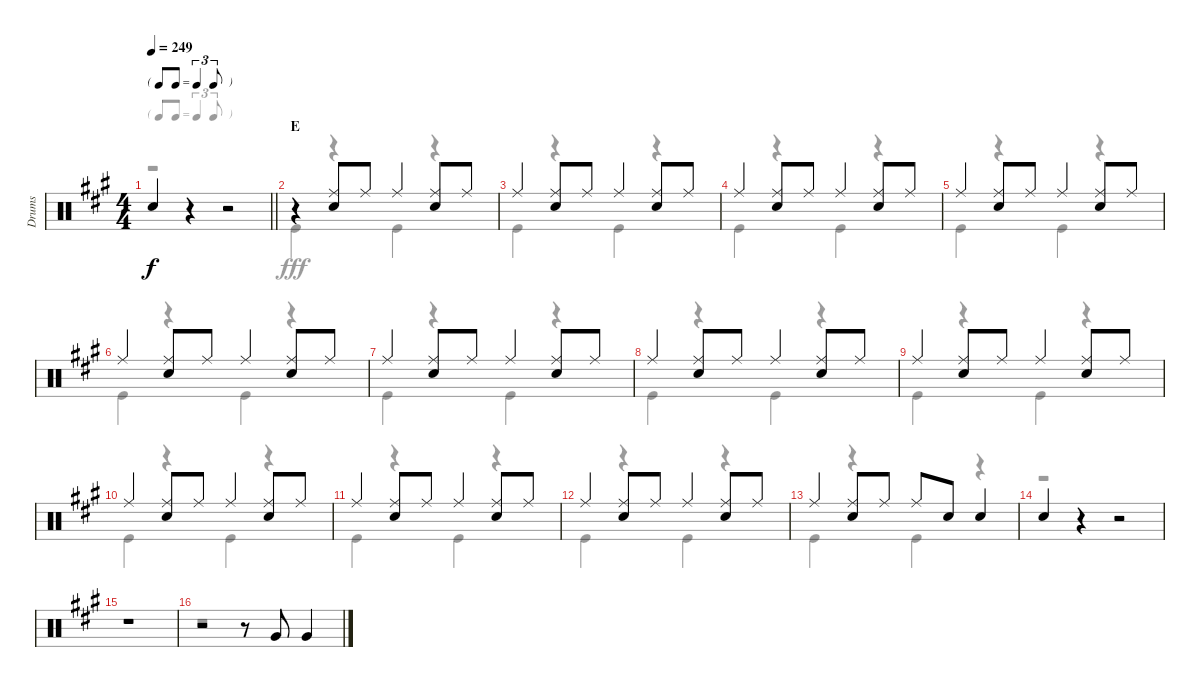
\track ("Drums" "Drums") {instrument percussion}
\staff {score}
\articulation defaults
\voice
\ts (4 4)
\tf triplet8th
\tempo 249
\clef neutral
\barLineRight lightlight
\ks a "Snare (hit) 2".4{dy f}
r.4 r.2 |
\section ("" "E")
r.4 ("Ride (middle)" "Snare (hit) 2").8 "Ride (middle)".8 "Ride (middle)".4 ("Ride (middle)" "Snare (hit) 2").8 "Ride (middle)".8 |
"Ride (middle)".4 ("Ride (middle)" "Snare (hit) 2").8 "Ride (middle)".8 "Ride (middle)".4 ("Ride (middle)" "Snare (hit) 2").8 "Ride (middle)".8 |
"Ride (middle)".4 ("Ride (middle)" "Snare (hit) 2").8 "Ride (middle)".8 "Ride (middle)".4 ("Ride (middle)" "Snare (hit) 2").8 "Ride (middle)".8 |
"Ride (middle)".4 ("Ride (middle)" "Snare (hit) 2").8 "Ride (middle)".8 "Ride (middle)".4 ("Ride (middle)" "Snare (hit) 2").8 "Ride (middle)".8 |
"Ride (middle)".4 ("Ride (middle)" "Snare (hit) 2").8 "Ride (middle)".8 "Ride (middle)".4 ("Ride (middle)" "Snare (hit) 2").8 "Ride (middle)".8 |
"Ride (middle)".4 ("Ride (middle)" "Snare (hit) 2").8 "Ride (middle)".8 "Ride (middle)".4 ("Ride (middle)" "Snare (hit) 2").8 "Ride (middle)".8 |
"Ride (middle)".4 ("Ride (middle)" "Snare (hit) 2").8 "Ride (middle)".8 "Ride (middle)".4 ("Ride (middle)" "Snare (hit) 2").8 "Ride (middle)".8 |
"Ride (middle)".4 ("Ride (middle)" "Snare (hit) 2").8 "Ride (middle)".8 "Ride (middle)".4 ("Ride (middle)" "Snare (hit) 2").8 "Ride (middle)".8 |
"Ride (middle)".4 ("Ride (middle)" "Snare (hit) 2").8 "Ride (middle)".8 "Ride (middle)".4 ("Ride (middle)" "Snare (hit) 2").8 "Ride (middle)".8 |
"Ride (middle)".4 ("Ride (middle)" "Snare (hit) 2").8 "Ride (middle)".8 "Ride (middle)".4 ("Ride (middle)" "Snare (hit) 2").8 "Ride (middle)".8 |
"Ride (middle)".4 ("Ride (middle)" "Snare (hit) 2").8 "Ride (middle)".8 "Ride (middle)".4 ("Ride (middle)" "Snare (hit) 2").8 "Ride (middle)".8 |
"Ride (middle)".4 ("Ride (middle)" "Snare (hit) 2").8 "Ride (middle)".8 "Ride (middle)".8 "Snare (hit) 2".8 "Snare (hit) 2".4 |
"Snare (hit) 2".4 r.4 r.2 |
r.1 |
r.2 r.8 "Very Low Tom (hit)".8 "Very Low Tom (hit)".4
\voice
\clef neutral
\ottava regular
\simile none
\barLineRight lightlight
\ks a
r.1{dy fff} |
"Kick (hit)".4 r.4 "Kick (hit)".4 r.4 |
"Kick (hit)".4 r.4 "Kick (hit)".4 r.4 |
"Kick (hit)".4 r.4 "Kick (hit)".4 r.4 |
"Kick (hit)".4 r.4 "Kick (hit)".4 r.4 |
"Kick (hit)".4 r.4 "Kick (hit)".4 r.4 |
"Kick (hit)".4 r.4 "Kick (hit)".4 r.4 |
"Kick (hit)".4 r.4 "Kick (hit)".4 r.4 |
"Kick (hit)".4 r.4 "Kick (hit)".4 r.4 |
"Kick (hit)".4 r.4 "Kick (hit)".4 r.4 |
"Kick (hit)".4 r.4 "Kick (hit)".4 r.4 |
"Kick (hit)".4 r.4 "Kick (hit)".4 r.4 |
"Kick (hit)".4 r.4 "Kick (hit)".4 r.4 |
r.1 |
r.1 |
r.1
